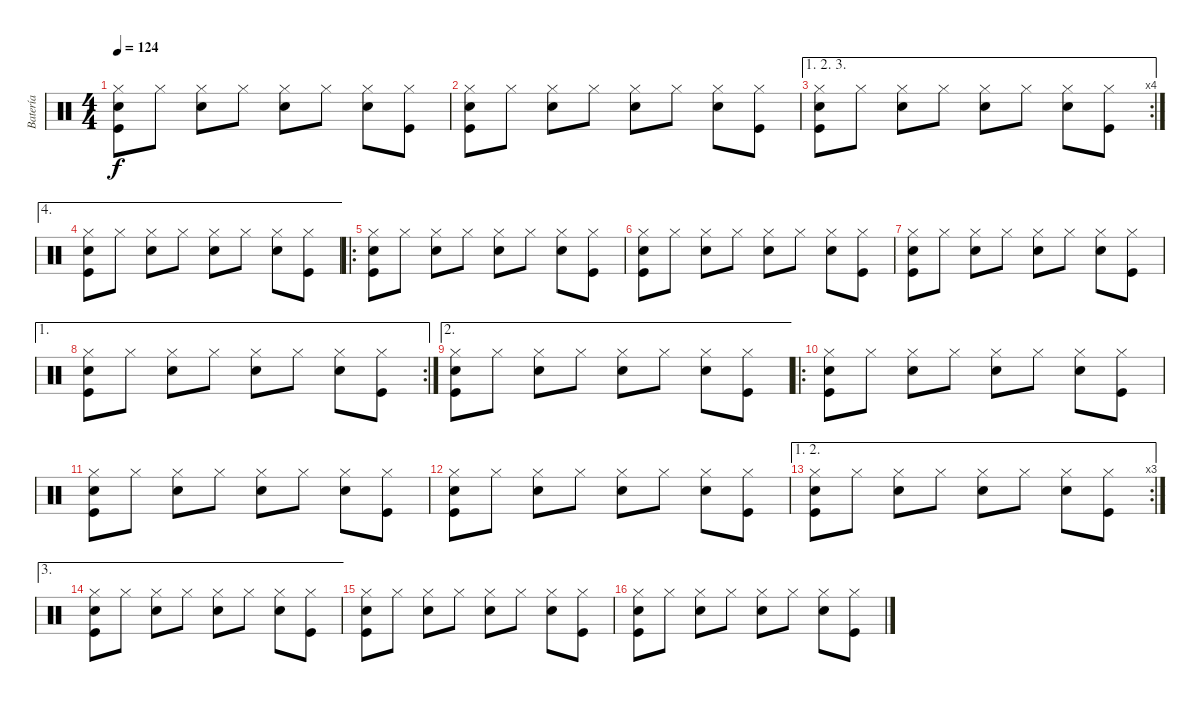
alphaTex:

\track ("Batería" "Batería") {instrument percussion bank 2}
\staff {score}
\articulation defaults
\ts (4 4)
\tempo 124
\clef neutral
\ks c
("Hi-Hat (closed)" "Snare (hit) 2" "Kick (hit)").8{dy f} "Hi-Hat (closed)".8 ("Hi-Hat (closed)" "Snare (hit) 2").8 "Hi-Hat (closed)".8 ("Hi-Hat (closed)" "Snare (hit) 2").8 "Hi-Hat (closed)".8 ("Hi-Hat (closed)" "Snare (hit) 2").8 ("Hi-Hat (closed)" "Kick (hit)").8 |
("Hi-Hat (closed)" "Snare (hit) 2" "Kick (hit)").8 "Hi-Hat (closed)".8 ("Hi-Hat (closed)" "Snare (hit) 2").8 "Hi-Hat (closed)".8 ("Hi-Hat (closed)" "Snare (hit) 2").8 "Hi-Hat (closed)".8 ("Hi-Hat (closed)" "Snare (hit) 2").8 ("Hi-Hat (closed)" "Kick (hit)").8 |
\ae (1 2 3)
\rc 4
("Hi-Hat (closed)" "Snare (hit) 2" "Kick (hit)").8 "Hi-Hat (closed)".8 ("Hi-Hat (closed)" "Snare (hit) 2").8 "Hi-Hat (closed)".8 ("Hi-Hat (closed)" "Snare (hit) 2").8 "Hi-Hat (closed)".8 ("Hi-Hat (closed)" "Snare (hit) 2").8 ("Hi-Hat (closed)" "Kick (hit)").8 |
\ae 4
("Hi-Hat (closed)" "Snare (hit) 2" "Kick (hit)").8 "Hi-Hat (closed)".8 ("Hi-Hat (closed)" "Snare (hit) 2").8 "Hi-Hat (closed)".8 ("Hi-Hat (closed)" "Snare (hit) 2").8 "Hi-Hat (closed)".8 ("Hi-Hat (closed)" "Snare (hit) 2").8 ("Hi-Hat (closed)" "Kick (hit)").8 |
\ro
("Hi-Hat (closed)" "Snare (hit) 2" "Kick (hit)").8 "Hi-Hat (closed)".8 ("Hi-Hat (closed)" "Snare (hit) 2").8 "Hi-Hat (closed)".8 ("Hi-Hat (closed)" "Snare (hit) 2").8 "Hi-Hat (closed)".8 ("Hi-Hat (closed)" "Snare (hit) 2").8 ("Hi-Hat (closed)" "Kick (hit)").8 |
("Hi-Hat (closed)" "Snare (hit) 2" "Kick (hit)").8 "Hi-Hat (closed)".8 ("Hi-Hat (closed)" "Snare (hit) 2").8 "Hi-Hat (closed)".8 ("Hi-Hat (closed)" "Snare (hit) 2").8 "Hi-Hat (closed)".8 ("Hi-Hat (closed)" "Snare (hit) 2").8 ("Hi-Hat (closed)" "Kick (hit)").8 |
("Hi-Hat (closed)" "Snare (hit) 2" "Kick (hit)").8 "Hi-Hat (closed)".8 ("Hi-Hat (closed)" "Snare (hit) 2").8 "Hi-Hat (closed)".8 ("Hi-Hat (closed)" "Snare (hit) 2").8 "Hi-Hat (closed)".8 ("Hi-Hat (closed)" "Snare (hit) 2").8 ("Hi-Hat (closed)" "Kick (hit)").8 |
\ae 1
\rc 2
("Hi-Hat (closed)" "Snare (hit) 2" "Kick (hit)").8 "Hi-Hat (closed)".8 ("Hi-Hat (closed)" "Snare (hit) 2").8 "Hi-Hat (closed)".8 ("Hi-Hat (closed)" "Snare (hit) 2").8 "Hi-Hat (closed)".8 ("Hi-Hat (closed)" "Snare (hit) 2").8 ("Hi-Hat (closed)" "Kick (hit)").8 |
\ae 2
("Hi-Hat (closed)" "Snare (hit) 2" "Kick (hit)").8 "Hi-Hat (closed)".8 ("Hi-Hat (closed)" "Snare (hit) 2").8 "Hi-Hat (closed)".8 ("Hi-Hat (closed)" "Snare (hit) 2").8 "Hi-Hat (closed)".8 ("Hi-Hat (closed)" "Snare (hit) 2").8 ("Hi-Hat (closed)" "Kick (hit)").8 |
\ro
("Hi-Hat (closed)" "Snare (hit) 2" "Kick (hit)").8 "Hi-Hat (closed)".8 ("Hi-Hat (closed)" "Snare (hit) 2").8 "Hi-Hat (closed)".8 ("Hi-Hat (closed)" "Snare (hit) 2").8 "Hi-Hat (closed)".8 ("Hi-Hat (closed)" "Snare (hit) 2").8 ("Hi-Hat (closed)" "Kick (hit)").8 |
("Hi-Hat (closed)" "Snare (hit) 2" "Kick (hit)").8 "Hi-Hat (closed)".8 ("Hi-Hat (closed)" "Snare (hit) 2").8 "Hi-Hat (closed)".8 ("Hi-Hat (closed)" "Snare (hit) 2").8 "Hi-Hat (closed)".8 ("Hi-Hat (closed)" "Snare (hit) 2").8 ("Hi-Hat (closed)" "Kick (hit)").8 |
("Hi-Hat (closed)" "Snare (hit) 2" "Kick (hit)").8 "Hi-Hat (closed)".8 ("Hi-Hat (closed)" "Snare (hit) 2").8 "Hi-Hat (closed)".8 ("Hi-Hat (closed)" "Snare (hit) 2").8 "Hi-Hat (closed)".8 ("Hi-Hat (closed)" "Snare (hit) 2").8 ("Hi-Hat (closed)" "Kick (hit)").8 |
\ae (1 2)
\rc 3
("Hi-Hat (closed)" "Snare (hit) 2" "Kick (hit)").8 "Hi-Hat (closed)".8 ("Hi-Hat (closed)" "Snare (hit) 2").8 "Hi-Hat (closed)".8 ("Hi-Hat (closed)" "Snare (hit) 2").8 "Hi-Hat (closed)".8 ("Hi-Hat (closed)" "Snare (hit) 2").8 ("Hi-Hat (closed)" "Kick (hit)").8 |
\ae 3
("Hi-Hat (closed)" "Snare (hit) 2" "Kick (hit)").8 "Hi-Hat (closed)".8 ("Hi-Hat (closed)" "Snare (hit) 2").8 "Hi-Hat (closed)".8 ("Hi-Hat (closed)" "Snare (hit) 2").8 "Hi-Hat (closed)".8 ("Hi-Hat (closed)" "Snare (hit) 2").8 ("Hi-Hat (closed)" "Kick (hit)").8 |
("Hi-Hat (closed)" "Snare (hit) 2" "Kick (hit)").8 "Hi-Hat (closed)".8 ("Hi-Hat (closed)" "Snare (hit) 2").8 "Hi-Hat (closed)".8 ("Hi-Hat (closed)" "Snare (hit) 2").8 "Hi-Hat (closed)".8 ("Hi-Hat (closed)" "Snare (hit) 2").8 ("Hi-Hat (closed)" "Kick (hit)").8 |
("Hi-Hat (closed)" "Snare (hit) 2" "Kick (hit)").8 "Hi-Hat (closed)".8 ("Hi-Hat (closed)" "Snare (hit) 2").8 "Hi-Hat (closed)".8 ("Hi-Hat (closed)" "Snare (hit) 2").8 "Hi-Hat (closed)".8 ("Hi-Hat (closed)" "Snare (hit) 2").8 ("Hi-Hat (closed)" "Kick (hit)").8
